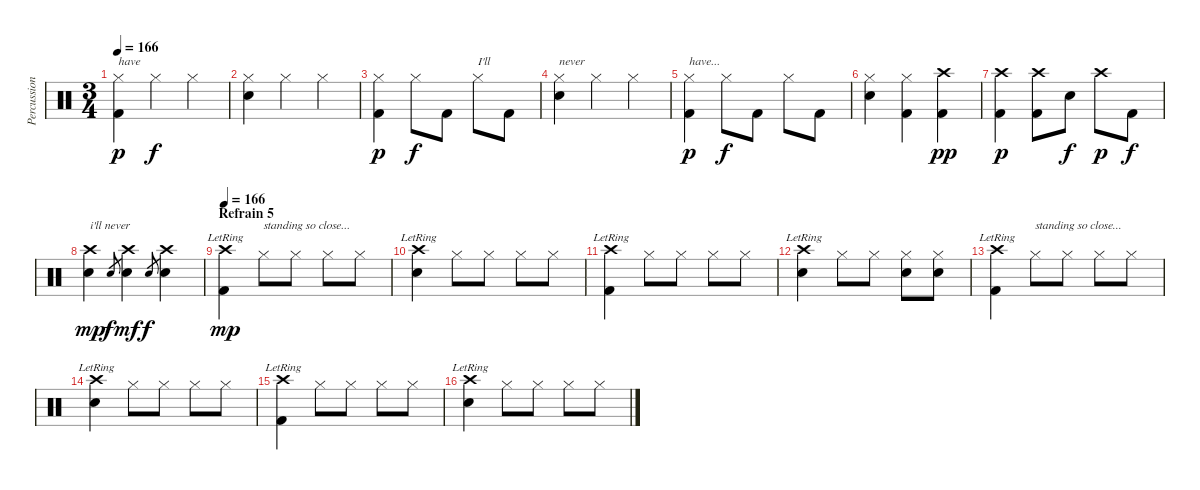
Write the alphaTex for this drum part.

\track ("Percussion" "Percussion") {instrument percussion}
\staff {score}
\articulation defaults
\ts (3 4)
\tempo 166
\clef neutral
\ks c
("Hi-Hat (closed)" "Kick (hit) 2").4{txt "have" dy p} "Hi-Hat (closed)".4{dy f} "Hi-Hat (closed)".4 |
("Hi-Hat (closed)" "Electric Snare (hit)").4 "Hi-Hat (closed)".4 "Hi-Hat (closed)".4 |
("Hi-Hat (closed)" "Kick (hit) 2").4{dy p} "Hi-Hat (closed)".8{dy f} "Kick (hit) 2".8 "Hi-Hat (closed)".8{txt "I'll"} "Kick (hit) 2".8 |
("Hi-Hat (closed)" "Electric Snare (hit)").4{txt "never"} "Hi-Hat (closed)".4 "Hi-Hat (closed)".4 |
("Hi-Hat (closed)" "Kick (hit) 2").4{txt "have..." dy p} "Hi-Hat (closed)".8{dy f} "Kick (hit) 2".8 "Hi-Hat (closed)".8 "Kick (hit) 2".8 |
("Hi-Hat (closed)" "Electric Snare (hit)").4 ("Hi-Hat (closed)" "Kick (hit) 2").4 ("Crash high (hit)" "Kick (hit) 2").4{dy pp} |
("Crash high (hit)" "Kick (hit) 2").4{dy p} ("Crash high (hit)" "Kick (hit) 2").8 "Electric Snare (hit)".8{dy f} "Crash high (hit)".8{dy p} "Kick (hit) 2".8{dy f} |
("Crash high (hit)" "Snare (hit) 2").4{txt "i'll never" dy mp} "Electric Snare (hit)".8{gr dy f} ("Crash high (hit)" "Electric Snare (hit)").4{dy mf} "Electric Snare (hit)".8{gr dy f} ("Crash high (hit)" "Electric Snare (hit)").4 |
\section ("" "Refrain 5")
\tempo 166
("Crash high (hit)"{lr} "Kick (hit) 2").4{dy mp} "Hi-Hat (closed)".8{txt "standing so close..."} "Hi-Hat (closed)".8 "Hi-Hat (closed)".8 "Hi-Hat (closed)".8 |
("Crash high (hit)"{lr} "Electric Snare (hit)").4 "Hi-Hat (closed)".8 "Hi-Hat (closed)".8 "Hi-Hat (closed)".8 "Hi-Hat (closed)".8 |
("Crash high (hit)"{lr} "Kick (hit) 2").4 "Hi-Hat (closed)".8 "Hi-Hat (closed)".8 "Hi-Hat (closed)".8 "Hi-Hat (closed)".8 |
("Crash high (hit)"{lr} "Electric Snare (hit)").4 "Hi-Hat (closed)".8 "Hi-Hat (closed)".8 ("Hi-Hat (closed)" "Electric Snare (hit)").8 ("Hi-Hat (closed)" "Electric Snare (hit)").8 |
("Crash high (hit)"{lr} "Kick (hit) 2").4 "Hi-Hat (closed)".8{txt "standing so close..."} "Hi-Hat (closed)".8 "Hi-Hat (closed)".8 "Hi-Hat (closed)".8 |
("Crash high (hit)"{lr} "Electric Snare (hit)").4 "Hi-Hat (closed)".8 "Hi-Hat (closed)".8 "Hi-Hat (closed)".8 "Hi-Hat (closed)".8 |
("Crash high (hit)"{lr} "Kick (hit) 2").4 "Hi-Hat (closed)".8 "Hi-Hat (closed)".8 "Hi-Hat (closed)".8 "Hi-Hat (closed)".8 |
("Crash high (hit)"{lr} "Electric Snare (hit)").4 "Hi-Hat (closed)".8 "Hi-Hat (closed)".8 "Hi-Hat (closed)".8 "Hi-Hat (closed)".8
